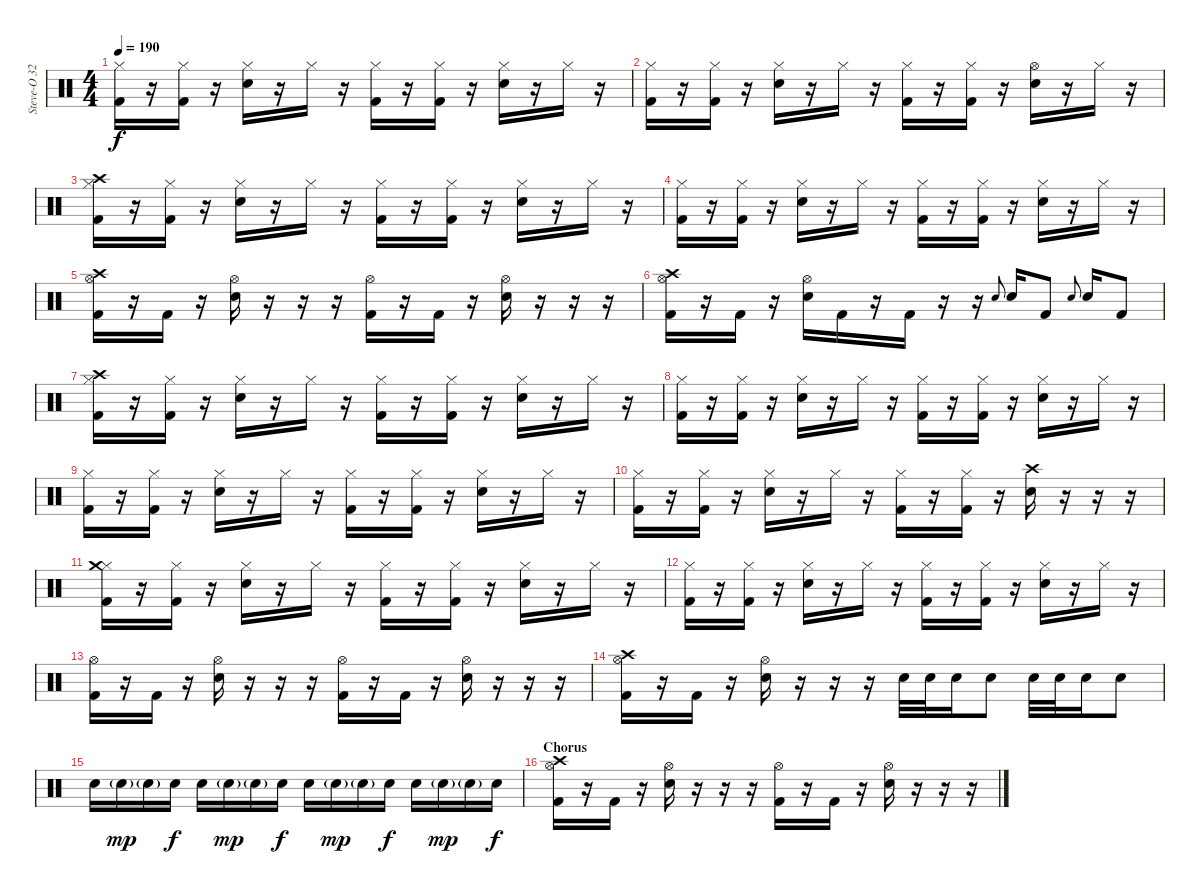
\track ("Steve-O 32 ( Drums )" "Steve-O 32") {instrument percussion}
\staff {score}
\articulation defaults
\ts (4 4)
\tempo 190
\clef neutral
\ks c
("Hi-Hat (closed)" "Kick (hit) 2").16{dy f} r.16 ("Hi-Hat (closed)" "Kick (hit) 2").16 r.16 ("Hi-Hat (closed)" "Snare (hit) 2").16 r.16 "Hi-Hat (closed)".16 r.16 ("Hi-Hat (closed)" "Kick (hit) 2").16 r.16 ("Hi-Hat (closed)" "Kick (hit) 2").16 r.16 ("Hi-Hat (closed)" "Snare (hit) 2").16 r.16 "Hi-Hat (closed)".16 r.16 |
("Hi-Hat (closed)" "Kick (hit) 2").16 r.16 ("Hi-Hat (closed)" "Kick (hit) 2").16 r.16 ("Hi-Hat (closed)" "Snare (hit) 2").16 r.16 "Hi-Hat (closed)".16 r.16 ("Hi-Hat (closed)" "Kick (hit) 2").16 r.16 ("Hi-Hat (closed)" "Kick (hit) 2").16 r.16 ("Hi-Hat (open)" "Snare (hit) 2").16 r.16 "Hi-Hat (closed)".16 r.16 |
("Hi-Hat (closed)" "Crash high (hit)" "Kick (hit) 2").16 r.16 ("Hi-Hat (closed)" "Kick (hit) 2").16 r.16 ("Hi-Hat (closed)" "Snare (hit) 2").16 r.16 "Hi-Hat (closed)".16 r.16 ("Hi-Hat (closed)" "Kick (hit) 2").16 r.16 ("Hi-Hat (closed)" "Kick (hit) 2").16 r.16 ("Hi-Hat (closed)" "Snare (hit) 2").16 r.16 "Hi-Hat (closed)".16 r.16 |
("Hi-Hat (closed)" "Kick (hit) 2").16 r.16 ("Hi-Hat (closed)" "Kick (hit) 2").16 r.16 ("Hi-Hat (closed)" "Snare (hit) 2").16 r.16 "Hi-Hat (closed)".16 r.16 ("Hi-Hat (closed)" "Kick (hit) 2").16 r.16 ("Hi-Hat (closed)" "Kick (hit) 2").16 r.16 ("Hi-Hat (closed)" "Snare (hit) 2").16 r.16 "Hi-Hat (closed)".16 r.16 |
("Hi-Hat (open)" "Crash high (hit)" "Kick (hit) 2").16 r.16 "Kick (hit) 2".16 r.16 ("Hi-Hat (open)" "Snare (hit) 2").16 r.16 r.16 r.16 ("Hi-Hat (open)" "Kick (hit) 2").16 r.16 "Kick (hit) 2".16 r.16 ("Hi-Hat (open)" "Snare (hit) 2").16 r.16 r.16 r.16 |
("Hi-Hat (open)" "Crash high (hit)" "Kick (hit) 2").16 r.16 "Kick (hit) 2".16 r.16 ("Hi-Hat (open)" "Snare (hit) 2").16 "Kick (hit) 2".16 r.16 "Kick (hit) 2".16 r.16 r.16 "Snare (hit) 2".8{gr onbeat} "Snare (hit) 2".16 "Kick (hit) 2".8 "Snare (hit) 2".8{gr onbeat} "Snare (hit) 2".16 "Kick (hit) 2".8 |
("Hi-Hat (closed)" "Crash high (hit)" "Kick (hit) 2").16 r.16 ("Hi-Hat (closed)" "Kick (hit) 2").16 r.16 ("Hi-Hat (closed)" "Snare (hit) 2").16 r.16 "Hi-Hat (closed)".16 r.16 ("Hi-Hat (closed)" "Kick (hit) 2").16 r.16 ("Hi-Hat (closed)" "Kick (hit) 2").16 r.16 ("Hi-Hat (closed)" "Snare (hit) 2").16 r.16 "Hi-Hat (closed)".16 r.16 |
("Hi-Hat (closed)" "Kick (hit) 2").16 r.16 ("Hi-Hat (closed)" "Kick (hit) 2").16 r.16 ("Hi-Hat (closed)" "Snare (hit) 2").16 r.16 "Hi-Hat (closed)".16 r.16 ("Hi-Hat (closed)" "Kick (hit) 2").16 r.16 ("Hi-Hat (closed)" "Kick (hit) 2").16 r.16 ("Hi-Hat (closed)" "Snare (hit) 2").16 r.16 "Hi-Hat (closed)".16 r.16 |
("Hi-Hat (closed)" "Kick (hit) 2").16 r.16 ("Hi-Hat (closed)" "Kick (hit) 2").16 r.16 ("Hi-Hat (closed)" "Snare (hit) 2").16 r.16 "Hi-Hat (closed)".16 r.16 ("Hi-Hat (closed)" "Kick (hit) 2").16 r.16 ("Hi-Hat (closed)" "Kick (hit) 2").16 r.16 ("Hi-Hat (closed)" "Snare (hit) 2").16 r.16 "Hi-Hat (closed)".16 r.16 |
("Hi-Hat (closed)" "Kick (hit) 2").16 r.16 ("Hi-Hat (closed)" "Kick (hit) 2").16 r.16 ("Hi-Hat (closed)" "Snare (hit) 2").16 r.16 "Hi-Hat (closed)".16 r.16 ("Hi-Hat (closed)" "Kick (hit) 2").16 r.16 ("Hi-Hat (closed)" "Kick (hit) 2").16 r.16 ("Crash high (hit)" "Snare (hit) 2").16 r.16 r.16 r.16 |
("Hi-Hat (closed)" "Crash medium (hit)" "Kick (hit) 2").16 r.16 ("Hi-Hat (closed)" "Kick (hit) 2").16 r.16 ("Hi-Hat (closed)" "Snare (hit) 2").16 r.16 "Hi-Hat (closed)".16 r.16 ("Hi-Hat (closed)" "Kick (hit) 2").16 r.16 ("Hi-Hat (closed)" "Kick (hit) 2").16 r.16 ("Hi-Hat (closed)" "Snare (hit) 2").16 r.16 "Hi-Hat (closed)".16 r.16 |
("Hi-Hat (closed)" "Kick (hit) 2").16 r.16 ("Hi-Hat (closed)" "Kick (hit) 2").16 r.16 ("Hi-Hat (closed)" "Snare (hit) 2").16 r.16 "Hi-Hat (closed)".16 r.16 ("Hi-Hat (closed)" "Kick (hit) 2").16 r.16 ("Hi-Hat (closed)" "Kick (hit) 2").16 r.16 ("Hi-Hat (closed)" "Snare (hit) 2").16 r.16 "Hi-Hat (closed)".16 r.16 |
("Hi-Hat (open)" "Kick (hit) 2").16 r.16 "Kick (hit) 2".16 r.16 ("Hi-Hat (open)" "Snare (hit) 2").16 r.16 r.16 r.16 ("Hi-Hat (open)" "Kick (hit) 2").16 r.16 "Kick (hit) 2".16 r.16 ("Hi-Hat (open)" "Snare (hit) 2").16 r.16 r.16 r.16 |
("Hi-Hat (open)" "Crash high (hit)" "Kick (hit) 2").16 r.16 "Kick (hit) 2".16 r.16 ("Hi-Hat (open)" "Snare (hit) 2").16 r.16 r.16 r.16 "Snare (hit) 2".32 "Snare (hit) 2".32 "Snare (hit) 2".16 "Snare (hit) 2".8 "Snare (hit) 2".32 "Snare (hit) 2".32 "Snare (hit) 2".16 "Snare (hit) 2".8 |
"Snare (hit) 2".16 "Snare (hit) 2"{g}.16{dy mp} "Snare (hit) 2"{g}.16 "Snare (hit) 2".16{dy f} "Snare (hit) 2".16 "Snare (hit) 2"{g}.16{dy mp} "Snare (hit) 2"{g}.16 "Snare (hit) 2".16{dy f} "Snare (hit) 2".16 "Snare (hit) 2"{g}.16{dy mp} "Snare (hit) 2"{g}.16 "Snare (hit) 2".16{dy f} "Snare (hit) 2".16 "Snare (hit) 2"{g}.16{dy mp} "Snare (hit) 2"{g}.16 "Snare (hit) 2".16{dy f} |
\section ("" "Chorus")
("Hi-Hat (open)" "Crash high (hit)" "Kick (hit) 2").16 r.16 "Kick (hit) 2".16 r.16 ("Hi-Hat (open)" "Snare (hit) 2").16 r.16 r.16 r.16 ("Hi-Hat (open)" "Kick (hit) 2").16 r.16 "Kick (hit) 2".16 r.16 ("Hi-Hat (open)" "Snare (hit) 2").16 r.16 r.16 r.16
